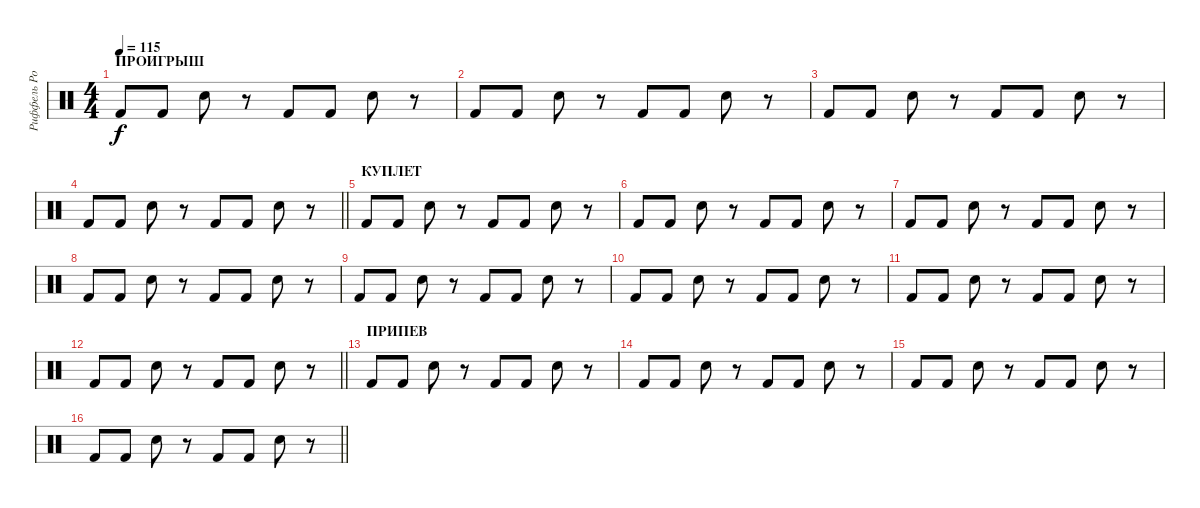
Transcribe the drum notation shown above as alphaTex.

\track ("Риффель Роман (главные)" "Риффель Ро") {instrument percussion}
\staff {score}
\articulation defaults
\ts (4 4)
\section ("" "ПРОИГРЫШ")
\tempo 115
\clef neutral
\ks c "Kick (hit) 2".8{dy f} "Kick (hit) 2".8 "Electric Snare (hit)".8
r.8 "Kick (hit) 2".8 "Kick (hit) 2".8 "Electric Snare (hit)".8 r.8 |
"Kick (hit) 2".8 "Kick (hit) 2".8 "Electric Snare (hit)".8 r.8 "Kick (hit) 2".8 "Kick (hit) 2".8 "Electric Snare (hit)".8 r.8 |
"Kick (hit) 2".8 "Kick (hit) 2".8 "Electric Snare (hit)".8 r.8 "Kick (hit) 2".8 "Kick (hit) 2".8 "Electric Snare (hit)".8 r.8 |
\barLineRight lightlight "Kick (hit) 2".8 "Kick (hit) 2".8 "Electric Snare (hit)".8
r.8 "Kick (hit) 2".8 "Kick (hit) 2".8 "Electric Snare (hit)".8 r.8 |
\section ("" "КУПЛЕТ")
"Kick (hit) 2".8 "Kick (hit) 2".8 "Electric Snare (hit)".8 r.8 "Kick (hit) 2".8 "Kick (hit) 2".8 "Electric Snare (hit)".8 r.8 |
"Kick (hit) 2".8 "Kick (hit) 2".8 "Electric Snare (hit)".8 r.8 "Kick (hit) 2".8 "Kick (hit) 2".8 "Electric Snare (hit)".8 r.8 |
"Kick (hit) 2".8 "Kick (hit) 2".8 "Electric Snare (hit)".8 r.8 "Kick (hit) 2".8 "Kick (hit) 2".8 "Electric Snare (hit)".8 r.8 |
"Kick (hit) 2".8 "Kick (hit) 2".8 "Electric Snare (hit)".8 r.8 "Kick (hit) 2".8 "Kick (hit) 2".8 "Electric Snare (hit)".8 r.8 |
"Kick (hit) 2".8 "Kick (hit) 2".8 "Electric Snare (hit)".8 r.8 "Kick (hit) 2".8 "Kick (hit) 2".8 "Electric Snare (hit)".8 r.8 |
"Kick (hit) 2".8 "Kick (hit) 2".8 "Electric Snare (hit)".8 r.8 "Kick (hit) 2".8 "Kick (hit) 2".8 "Electric Snare (hit)".8 r.8 |
"Kick (hit) 2".8 "Kick (hit) 2".8 "Electric Snare (hit)".8 r.8 "Kick (hit) 2".8 "Kick (hit) 2".8 "Electric Snare (hit)".8 r.8 |
\barLineRight lightlight "Kick (hit) 2".8 "Kick (hit) 2".8 "Electric Snare (hit)".8
r.8 "Kick (hit) 2".8 "Kick (hit) 2".8 "Electric Snare (hit)".8 r.8 |
\section ("" "ПРИПЕВ")
"Kick (hit) 2".8 "Kick (hit) 2".8 "Electric Snare (hit)".8 r.8 "Kick (hit) 2".8 "Kick (hit) 2".8 "Electric Snare (hit)".8 r.8 |
"Kick (hit) 2".8 "Kick (hit) 2".8 "Electric Snare (hit)".8 r.8 "Kick (hit) 2".8 "Kick (hit) 2".8 "Electric Snare (hit)".8 r.8 |
"Kick (hit) 2".8 "Kick (hit) 2".8 "Electric Snare (hit)".8 r.8 "Kick (hit) 2".8 "Kick (hit) 2".8 "Electric Snare (hit)".8 r.8 |
\barLineRight lightlight "Kick (hit) 2".8 "Kick (hit) 2".8 "Electric Snare (hit)".8
r.8 "Kick (hit) 2".8 "Kick (hit) 2".8 "Electric Snare (hit)".8 r.8
